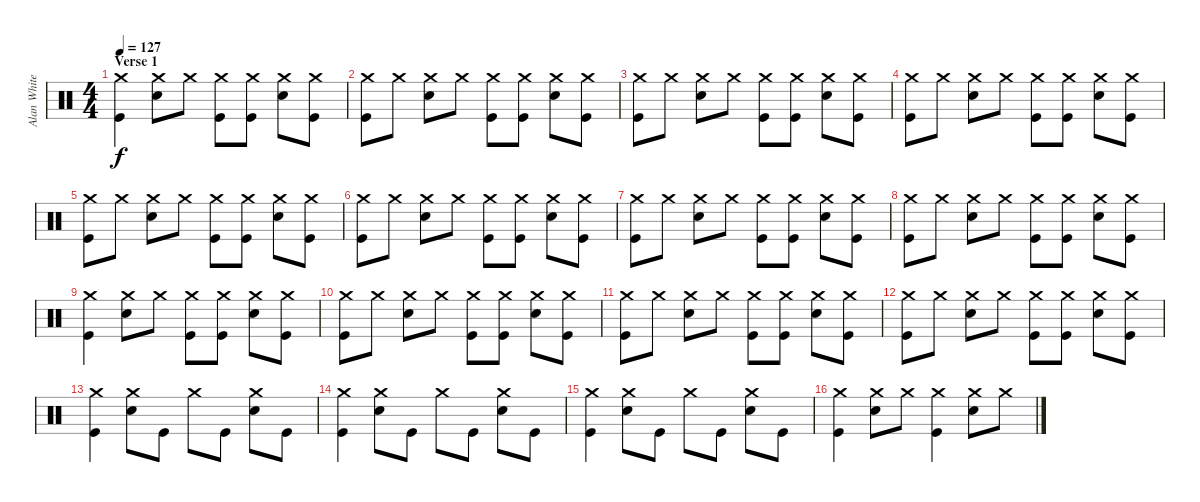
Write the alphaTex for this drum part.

\track ("Alan White (Percussion)" "Alan White") {instrument percussion}
\staff {score}
\articulation defaults
\ts (4 4)
\section ("" "Verse 1")
\tempo 127
\clef neutral
\ks c
("Crash medium (hit)" "Kick (hit)").4{dy f} ("Crash medium (hit)" "Snare (hit) 2").8 "Crash medium (hit)".8 ("Crash medium (hit)" "Kick (hit)").8 ("Crash medium (hit)" "Kick (hit)").8 ("Crash medium (hit)" "Snare (hit) 2").8 ("Crash medium (hit)" "Kick (hit)").8 |
("Crash medium (hit)" "Kick (hit)").8 "Crash medium (hit)".8 ("Crash medium (hit)" "Snare (hit) 2").8 "Crash medium (hit)".8 ("Crash medium (hit)" "Kick (hit)").8 ("Crash medium (hit)" "Kick (hit)").8 ("Crash medium (hit)" "Snare (hit) 2").8 ("Crash medium (hit)" "Kick (hit)").8 |
("Crash medium (hit)" "Kick (hit)").8 "Crash medium (hit)".8 ("Crash medium (hit)" "Snare (hit) 2").8 "Crash medium (hit)".8 ("Crash medium (hit)" "Kick (hit)").8 ("Crash medium (hit)" "Kick (hit)").8 ("Crash medium (hit)" "Snare (hit) 2").8 ("Crash medium (hit)" "Kick (hit)").8 |
("Crash medium (hit)" "Kick (hit)").8 "Crash medium (hit)".8 ("Crash medium (hit)" "Snare (hit) 2").8 "Crash medium (hit)".8 ("Crash medium (hit)" "Kick (hit)").8 ("Crash medium (hit)" "Kick (hit)").8 ("Crash medium (hit)" "Snare (hit) 2").8 ("Crash medium (hit)" "Kick (hit)").8 |
("Crash medium (hit)" "Kick (hit)").8 "Crash medium (hit)".8 ("Crash medium (hit)" "Snare (hit) 2").8 "Crash medium (hit)".8 ("Crash medium (hit)" "Kick (hit)").8 ("Crash medium (hit)" "Kick (hit)").8 ("Crash medium (hit)" "Snare (hit) 2").8 ("Crash medium (hit)" "Kick (hit)").8 |
("Crash medium (hit)" "Kick (hit)").8 "Crash medium (hit)".8 ("Crash medium (hit)" "Snare (hit) 2").8 "Crash medium (hit)".8 ("Crash medium (hit)" "Kick (hit)").8 ("Crash medium (hit)" "Kick (hit)").8 ("Crash medium (hit)" "Snare (hit) 2").8 ("Crash medium (hit)" "Kick (hit)").8 |
("Crash medium (hit)" "Kick (hit)").8 "Crash medium (hit)".8 ("Crash medium (hit)" "Snare (hit) 2").8 "Crash medium (hit)".8 ("Crash medium (hit)" "Kick (hit)").8 ("Crash medium (hit)" "Kick (hit)").8 ("Crash medium (hit)" "Snare (hit) 2").8 ("Crash medium (hit)" "Kick (hit)").8 |
("Crash medium (hit)" "Kick (hit)").8 "Crash medium (hit)".8 ("Crash medium (hit)" "Snare (hit) 2").8 "Crash medium (hit)".8 ("Crash medium (hit)" "Kick (hit)").8 ("Crash medium (hit)" "Kick (hit)").8 ("Crash medium (hit)" "Snare (hit) 2").8 ("Crash medium (hit)" "Kick (hit)").8 |
("Crash medium (hit)" "Kick (hit)").4 ("Crash medium (hit)" "Snare (hit) 2").8 "Crash medium (hit)".8 ("Crash medium (hit)" "Kick (hit)").8 ("Crash medium (hit)" "Kick (hit)").8 ("Crash medium (hit)" "Snare (hit) 2").8 ("Crash medium (hit)" "Kick (hit)").8 |
("Crash medium (hit)" "Kick (hit)").8 "Crash medium (hit)".8 ("Crash medium (hit)" "Snare (hit) 2").8 "Crash medium (hit)".8 ("Crash medium (hit)" "Kick (hit)").8 ("Crash medium (hit)" "Kick (hit)").8 ("Crash medium (hit)" "Snare (hit) 2").8 ("Crash medium (hit)" "Kick (hit)").8 |
("Crash medium (hit)" "Kick (hit)").8 "Crash medium (hit)".8 ("Crash medium (hit)" "Snare (hit) 2").8 "Crash medium (hit)".8 ("Crash medium (hit)" "Kick (hit)").8 ("Crash medium (hit)" "Kick (hit)").8 ("Crash medium (hit)" "Snare (hit) 2").8 ("Crash medium (hit)" "Kick (hit)").8 |
("Crash medium (hit)" "Kick (hit)").8 "Crash medium (hit)".8 ("Crash medium (hit)" "Snare (hit) 2").8 "Crash medium (hit)".8 ("Crash medium (hit)" "Kick (hit)").8 ("Crash medium (hit)" "Kick (hit)").8 ("Crash medium (hit)" "Snare (hit) 2").8 ("Crash medium (hit)" "Kick (hit)").8 |
("Crash medium (hit)" "Kick (hit)").4 ("Crash medium (hit)" "Snare (hit) 2").8 "Kick (hit)".8 "Crash medium (hit)".8 "Kick (hit)".8 ("Crash medium (hit)" "Snare (hit) 2").8 "Kick (hit)".8 |
("Crash medium (hit)" "Kick (hit)").4 ("Crash medium (hit)" "Snare (hit) 2").8 "Kick (hit)".8 "Crash medium (hit)".8 "Kick (hit)".8 ("Crash medium (hit)" "Snare (hit) 2").8 "Kick (hit)".8 |
("Crash medium (hit)" "Kick (hit)").4 ("Crash medium (hit)" "Snare (hit) 2").8 "Kick (hit)".8 "Crash medium (hit)".8 "Kick (hit)".8 ("Crash medium (hit)" "Snare (hit) 2").8 "Kick (hit)".8 |
("Crash medium (hit)" "Kick (hit)").4 ("Crash medium (hit)" "Snare (hit) 2").8 "Crash medium (hit)".8 ("Crash medium (hit)" "Kick (hit)").4 ("Crash medium (hit)" "Snare (hit) 2").8 "Crash medium (hit)".8
